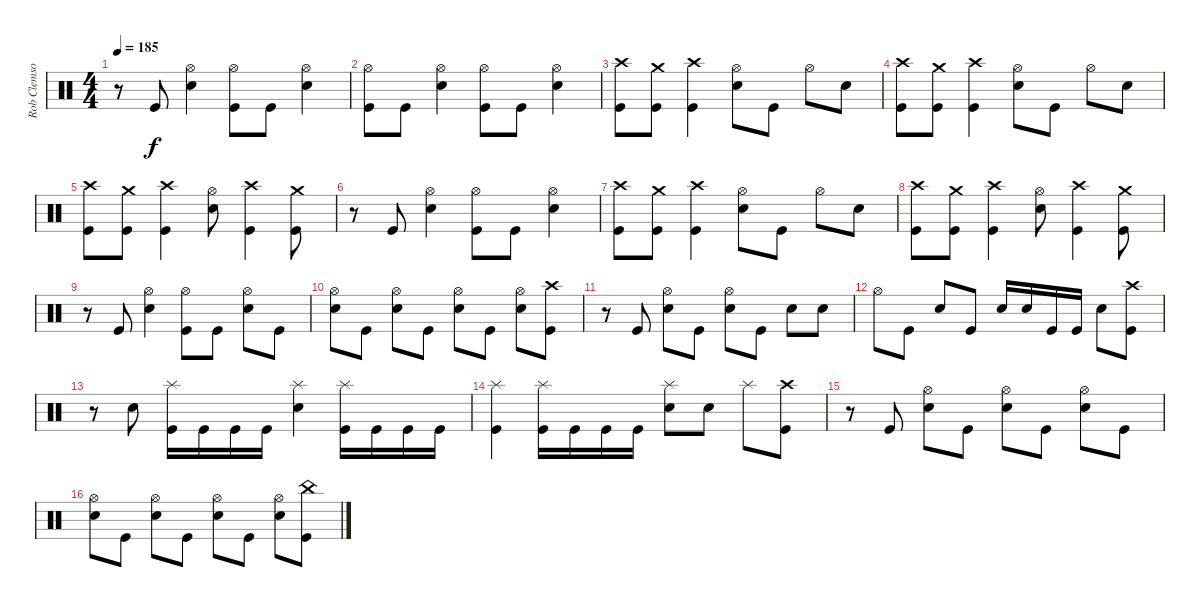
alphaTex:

\track ("Rob Clemson (Drums)" "Rob Clemso") {instrument percussion}
\staff {score}
\articulation defaults
\ts (4 4)
\tempo 185
\clef neutral
\ks c
r.8{dy f} "Kick (hit)".8 ("Electric Snare (hit)" "Hi-Hat (open)").4 ("Hi-Hat (open)" "Kick (hit)").8 "Kick (hit)".8 ("Hi-Hat (open)" "Electric Snare (hit)").4 |
("Hi-Hat (open)" "Kick (hit)").8 "Kick (hit)".8 ("Hi-Hat (open)" "Electric Snare (hit)").4 ("Hi-Hat (open)" "Kick (hit)").8 "Kick (hit)".8 ("Hi-Hat (open)" "Electric Snare (hit)").4 |
("Kick (hit)" "Crash high (hit)").8 ("Crash medium (hit)" "Kick (hit)").8 ("Crash high (hit)" "Kick (hit)").4 ("Electric Snare (hit)" "Hi-Hat (open)").8 "Kick (hit)".8 "Hi-Hat (open)".8 "Electric Snare (hit)".8 |
("Kick (hit)" "Crash high (hit)").8 ("Crash medium (hit)" "Kick (hit)").8 ("Crash high (hit)" "Kick (hit)").4 ("Electric Snare (hit)" "Hi-Hat (open)").8 "Kick (hit)".8 "Hi-Hat (open)".8 "Electric Snare (hit)".8 |
("Kick (hit)" "Crash high (hit)").8 ("Crash medium (hit)" "Kick (hit)").8 ("Crash high (hit)" "Kick (hit)").4 ("Electric Snare (hit)" "Hi-Hat (open)").8 ("Kick (hit)" "Crash high (hit)").4 ("Kick (hit)" "Crash medium (hit)").8 |
r.8 "Kick (hit)".8 ("Electric Snare (hit)" "Hi-Hat (open)").4 ("Hi-Hat (open)" "Kick (hit)").8 "Kick (hit)".8 ("Hi-Hat (open)" "Electric Snare (hit)").4 |
("Kick (hit)" "Crash high (hit)").8 ("Crash medium (hit)" "Kick (hit)").8 ("Crash high (hit)" "Kick (hit)").4 ("Electric Snare (hit)" "Hi-Hat (open)").8 "Kick (hit)".8 "Hi-Hat (open)".8 "Electric Snare (hit)".8 |
("Kick (hit)" "Crash high (hit)").8 ("Crash medium (hit)" "Kick (hit)").8 ("Crash high (hit)" "Kick (hit)").4 ("Electric Snare (hit)" "Hi-Hat (open)").8 ("Kick (hit)" "Crash high (hit)").4 ("Kick (hit)" "Crash medium (hit)").8 |
r.8 "Kick (hit)".8 ("Electric Snare (hit)" "Hi-Hat (open)").4 ("Hi-Hat (open)" "Kick (hit)").8 "Kick (hit)".8 ("Hi-Hat (open)" "Electric Snare (hit)").8 "Kick (hit)".8 |
("Hi-Hat (open)" "Electric Snare (hit)").8 "Kick (hit)".8 ("Hi-Hat (open)" "Electric Snare (hit)").8 "Kick (hit)".8 ("Hi-Hat (open)" "Electric Snare (hit)").8 "Kick (hit)".8 ("Hi-Hat (open)" "Electric Snare (hit)").8 ("Kick (hit)" "Crash high (hit)").8 |
r.8 "Kick (hit)".8 ("Electric Snare (hit)" "Hi-Hat (open)").8 "Kick (hit)".8 ("Electric Snare (hit)" "Hi-Hat (open)").8 "Kick (hit)".8 "Electric Snare (hit)".8 "Electric Snare (hit)".8 |
"Hi-Hat (open)".8 "Kick (hit)".8 "Electric Snare (hit)".8 "Kick (hit)".8 "Electric Snare (hit)".16 "Electric Snare (hit)".16 "Kick (hit)".16 "Kick (hit)".16 "Electric Snare (hit)".8 ("Kick (hit)" "Crash high (hit)").8 |
r.8 "Electric Snare (hit)".8 ("Kick (hit)" "Splash (hit)").16 "Kick (hit)".16 "Kick (hit)".16 "Kick (hit)".16 ("Splash (hit)" "Electric Snare (hit)").4 ("Splash (hit)" "Kick (hit)").16 "Kick (hit)".16 "Kick (hit)".16 "Kick (hit)".16 |
("Kick (hit)" "Splash (hit)").4 ("Kick (hit)" "Splash (hit)").16 "Kick (hit)".16 "Kick (hit)".16 "Kick (hit)".16 ("Splash (hit)" "Electric Snare (hit)").8 "Electric Snare (hit)".8 "Splash (hit)".8 ("Kick (hit)" "Crash high (hit)").8 |
r.8 "Kick (hit)".8 ("Electric Snare (hit)" "Hi-Hat (open)").8 "Kick (hit)".8 ("Electric Snare (hit)" "Hi-Hat (open)").8 "Kick (hit)".8 ("Electric Snare (hit)" "Hi-Hat (open)").8 "Kick (hit)".8 |
("Electric Snare (hit)" "Hi-Hat (open)").8 "Kick (hit)".8 ("Electric Snare (hit)" "Hi-Hat (open)").8 "Kick (hit)".8 ("Electric Snare (hit)" "Hi-Hat (open)").8 "Kick (hit)".8 ("Electric Snare (hit)" "Hi-Hat (open)").8 ("Kick (hit)" "China (hit)").8
